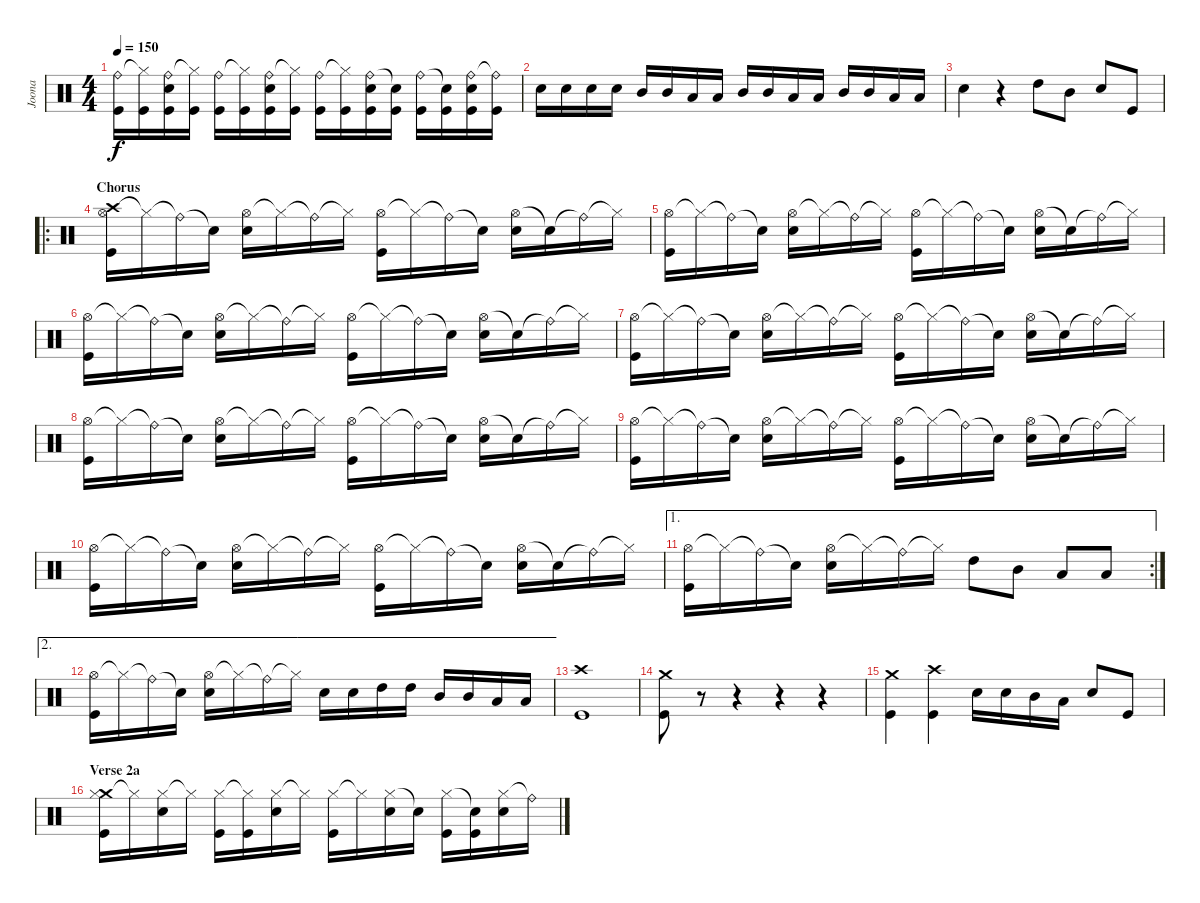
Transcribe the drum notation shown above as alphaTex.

\track ("Joona" "Joona") {instrument percussion}
\staff {score}
\articulation defaults
\ts (4 4)
\tempo 150
\clef neutral
\ks c
("Ride (bell)" "Kick (hit)").16{dy f} ("Hi-Hat (closed)"{t} "Kick (hit)").16 ("Ride (bell)" "Snare (hit) 2" "Kick (hit)").16 ("Hi-Hat (closed)"{t} "Kick (hit)").16 ("Ride (bell)" "Kick (hit)").16 ("Hi-Hat (closed)"{t} "Kick (hit)").16 ("Ride (bell)" "Snare (hit) 2" "Kick (hit)").16 ("Hi-Hat (closed)"{t} "Kick (hit)").16 ("Ride (bell)" "Kick (hit)").16 ("Hi-Hat (closed)"{t} "Kick (hit)").16 ("Ride (bell)" "Snare (hit) 2" "Kick (hit)").16 ("Snare (hit)"{t} "Kick (hit)").16 ("Ride (bell)" "Kick (hit)").16 ("Snare (hit)"{t} "Kick (hit)").16 ("Ride (bell)" "Snare (hit) 2" "Kick (hit)").16 ("Ride (bell)"{t} "Kick (hit)").16 |
"Snare (hit) 2".16 "Snare (hit) 2".16 "Snare (hit) 2".16 "Snare (hit) 2".16 "Mid Tom (hit)".16 "Mid Tom (hit)".16 "Low Tom (hit)".16 "Low Tom (hit)".16 "Mid Tom (hit)".16 "Mid Tom (hit)".16 "Low Tom (hit)".16 "Low Tom (hit)".16 "Mid Tom (hit)".16 "Mid Tom (hit)".16 "Low Tom (hit)".16 "Low Tom (hit)".16 |
"Snare (hit) 2".4 r.4 "High Tom (hit)".8 "Mid Tom (hit)".8 "Snare (hit) 2".8 "Kick (hit)".8 |
\ro
\section ("" "Chorus")
("Crash high (hit)" "Hi-Hat (open)" "Kick (hit)").16 "Hi-Hat (closed)"{t}.16 "Ride (bell)"{t}.16 "Snare (hit)"{t}.16 ("Hi-Hat (open)" "Snare (hit) 2").16 "Hi-Hat (closed)"{t}.16 "Ride (bell)"{t}.16 "Hi-Hat (closed)"{t}.16 ("Hi-Hat (open)" "Kick (hit)").16 "Hi-Hat (closed)"{t}.16 "Ride (bell)"{t}.16 "Snare (hit)"{t}.16 ("Hi-Hat (open)" "Snare (hit) 2").16 "Snare (hit)"{t}.16 "Ride (bell)"{t}.16 "Hi-Hat (closed)"{t}.16 |
("Hi-Hat (open)" "Kick (hit)").16 "Hi-Hat (closed)"{t}.16 "Ride (bell)"{t}.16 "Snare (hit)"{t}.16 ("Hi-Hat (open)" "Snare (hit) 2").16 "Hi-Hat (closed)"{t}.16 "Ride (bell)"{t}.16 "Hi-Hat (closed)"{t}.16 ("Hi-Hat (open)" "Kick (hit)").16 "Hi-Hat (closed)"{t}.16 "Ride (bell)"{t}.16 "Snare (hit)"{t}.16 ("Hi-Hat (open)" "Snare (hit) 2").16 "Snare (hit)"{t}.16 "Ride (bell)"{t}.16 "Hi-Hat (closed)"{t}.16 |
("Hi-Hat (open)" "Kick (hit)").16 "Hi-Hat (closed)"{t}.16 "Ride (bell)"{t}.16 "Snare (hit)"{t}.16 ("Hi-Hat (open)" "Snare (hit) 2").16 "Hi-Hat (closed)"{t}.16 "Ride (bell)"{t}.16 "Hi-Hat (closed)"{t}.16 ("Hi-Hat (open)" "Kick (hit)").16 "Hi-Hat (closed)"{t}.16 "Ride (bell)"{t}.16 "Snare (hit)"{t}.16 ("Hi-Hat (open)" "Snare (hit) 2").16 "Snare (hit)"{t}.16 "Ride (bell)"{t}.16 "Hi-Hat (closed)"{t}.16 |
("Hi-Hat (open)" "Kick (hit)").16 "Hi-Hat (closed)"{t}.16 "Ride (bell)"{t}.16 "Snare (hit)"{t}.16 ("Hi-Hat (open)" "Snare (hit) 2").16 "Hi-Hat (closed)"{t}.16 "Ride (bell)"{t}.16 "Hi-Hat (closed)"{t}.16 ("Hi-Hat (open)" "Kick (hit)").16 "Hi-Hat (closed)"{t}.16 "Ride (bell)"{t}.16 "Snare (hit)"{t}.16 ("Hi-Hat (open)" "Snare (hit) 2").16 "Snare (hit)"{t}.16 "Ride (bell)"{t}.16 "Hi-Hat (closed)"{t}.16 |
("Hi-Hat (open)" "Kick (hit)").16 "Hi-Hat (closed)"{t}.16 "Ride (bell)"{t}.16 "Snare (hit)"{t}.16 ("Hi-Hat (open)" "Snare (hit) 2").16 "Hi-Hat (closed)"{t}.16 "Ride (bell)"{t}.16 "Hi-Hat (closed)"{t}.16 ("Hi-Hat (open)" "Kick (hit)").16 "Hi-Hat (closed)"{t}.16 "Ride (bell)"{t}.16 "Snare (hit)"{t}.16 ("Hi-Hat (open)" "Snare (hit) 2").16 "Snare (hit)"{t}.16 "Ride (bell)"{t}.16 "Hi-Hat (closed)"{t}.16 |
("Hi-Hat (open)" "Kick (hit)").16 "Hi-Hat (closed)"{t}.16 "Ride (bell)"{t}.16 "Snare (hit)"{t}.16 ("Hi-Hat (open)" "Snare (hit) 2").16 "Hi-Hat (closed)"{t}.16 "Ride (bell)"{t}.16 "Hi-Hat (closed)"{t}.16 ("Hi-Hat (open)" "Kick (hit)").16 "Hi-Hat (closed)"{t}.16 "Ride (bell)"{t}.16 "Snare (hit)"{t}.16 ("Hi-Hat (open)" "Snare (hit) 2").16 "Snare (hit)"{t}.16 "Ride (bell)"{t}.16 "Hi-Hat (closed)"{t}.16 |
("Hi-Hat (open)" "Kick (hit)").16 "Hi-Hat (closed)"{t}.16 "Ride (bell)"{t}.16 "Snare (hit)"{t}.16 ("Hi-Hat (open)" "Snare (hit) 2").16 "Hi-Hat (closed)"{t}.16 "Ride (bell)"{t}.16 "Hi-Hat (closed)"{t}.16 ("Hi-Hat (open)" "Kick (hit)").16 "Hi-Hat (closed)"{t}.16 "Ride (bell)"{t}.16 "Snare (hit)"{t}.16 ("Hi-Hat (open)" "Snare (hit) 2").16 "Snare (hit)"{t}.16 "Ride (bell)"{t}.16 "Hi-Hat (closed)"{t}.16 |
\ae 1
\rc 2
("Hi-Hat (open)" "Kick (hit)").16 "Hi-Hat (closed)"{t}.16 "Ride (bell)"{t}.16 "Snare (hit)"{t}.16 ("Hi-Hat (open)" "Snare (hit) 2").16 "Hi-Hat (closed)"{t}.16 "Ride (bell)"{t}.16 "Hi-Hat (closed)"{t}.16 "High Tom (hit)".8 "Mid Tom (hit)".8 "Low Tom (hit)".8 "Low Tom (hit)".8 |
\ae 2
("Hi-Hat (open)" "Kick (hit)").16 "Hi-Hat (closed)"{t}.16 "Ride (bell)"{t}.16 "Snare (hit)"{t}.16 ("Hi-Hat (open)" "Snare (hit) 2").16 "Hi-Hat (closed)"{t}.16 "Ride (bell)"{t}.16 "Hi-Hat (closed)"{t}.16 "Snare (hit) 2".16 "Snare (hit) 2".16 "High Tom (hit)".16 "High Tom (hit)".16 "Mid Tom (hit)".16 "Mid Tom (hit)".16 "Low Tom (hit)".16 "Low Tom (hit)".16 |
("Crash high (hit)" "Kick (hit)").1 |
("Crash medium (hit)" "Kick (hit)").8 r.8 r.4 r.4 r.4 |
("Crash medium (hit)" "Kick (hit)").4 ("Crash high (hit)" "Kick (hit)").4 "Snare (hit) 2".16 "Snare (hit) 2".16 "Mid Tom (hit)".16 "Low Tom (hit)".16 "Snare (hit) 2".8 "Kick (hit)".8 |
\section ("" "Verse 2a")
("Crash medium (hit)" "Hi-Hat (closed)" "Kick (hit)").16 "Hi-Hat (closed)"{t}.16 ("Hi-Hat (closed)" "Snare (hit) 2").16 "Hi-Hat (closed)"{t}.16 ("Hi-Hat (closed)" "Kick (hit)").16 ("Hi-Hat (closed)"{t} "Kick (hit)").16 ("Hi-Hat (closed)" "Snare (hit) 2").16 "Hi-Hat (closed)"{t}.16 ("Hi-Hat (closed)" "Kick (hit)").16 "Hi-Hat (closed)"{t}.16 ("Hi-Hat (closed)" "Snare (hit) 2").16 "Snare (hit)"{t}.16 ("Hi-Hat (closed)" "Kick (hit)").16 ("Snare (hit)"{t} "Kick (hit)").16 ("Hi-Hat (closed)" "Snare (hit) 2").16 "Ride (bell)"{t}.16
